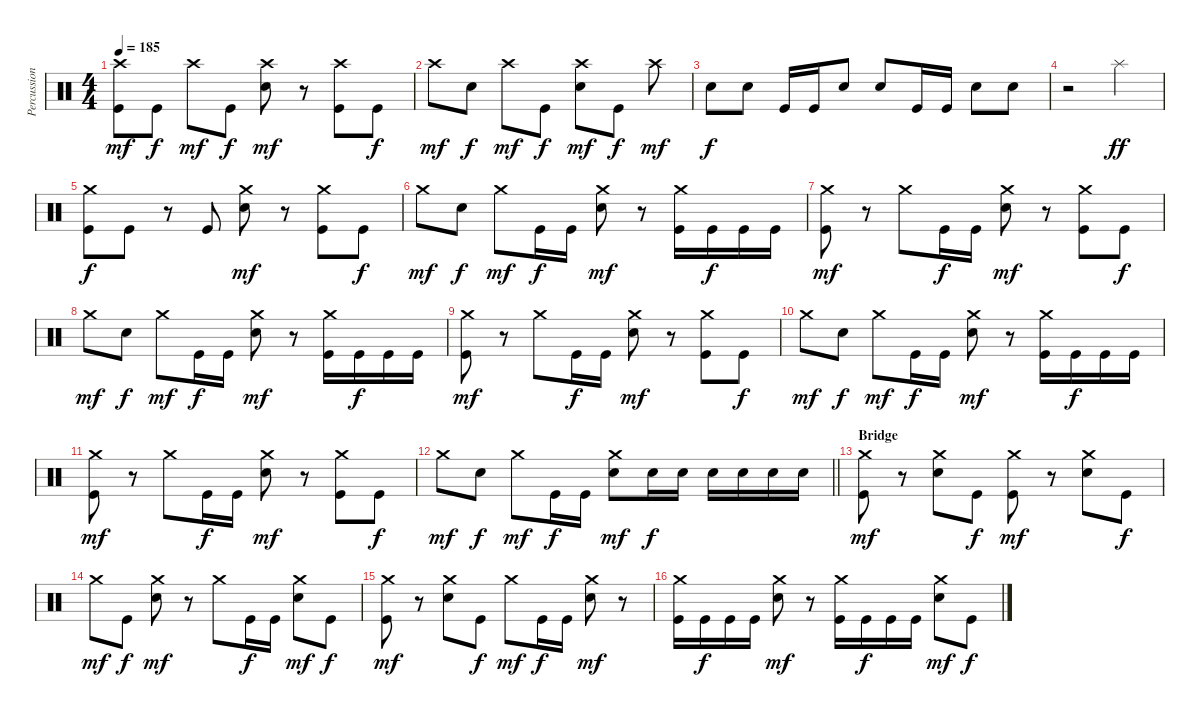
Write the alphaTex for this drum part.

\track ("Percussion" "Percussion") {instrument percussion}
\staff {score}
\articulation defaults
\ts (4 4)
\tempo 185
\clef neutral
\ks c
("Crash high (hit)" "Kick (hit)").8{dy mf} "Kick (hit)".8{dy f} "Crash high (hit)".8{dy mf} "Kick (hit)".8{dy f} ("Crash high (hit)" "Electric Snare (hit)").8{dy mf} r.8 ("Crash high (hit)" "Kick (hit)").8 "Kick (hit)".8{dy f} |
"Crash high (hit)".8{dy mf} "Electric Snare (hit)".8{dy f} "Crash high (hit)".8{dy mf} "Kick (hit)".8{dy f} ("Crash high (hit)" "Electric Snare (hit)").8{dy mf} "Kick (hit)".8{dy f} "Crash high (hit)".8{dy mf} |
"Electric Snare (hit)".8{dy f} "Electric Snare (hit)".8 "Kick (hit)".16 "Kick (hit)".16 "Electric Snare (hit)".8 "Electric Snare (hit)".8 "Kick (hit)".16 "Kick (hit)".16 "Electric Snare (hit)".8 "Electric Snare (hit)".8 |
r.2 "Splash (hit)".4{dy ff} |
("Crash medium (hit)" "Kick (hit)").8{dy f} "Kick (hit)".8 r.8 "Kick (hit)".8 ("Crash medium (hit)" "Electric Snare (hit)").8{dy mf} r.8 ("Crash medium (hit)" "Kick (hit)").8 "Kick (hit)".8{dy f} |
"Crash medium (hit)".8{dy mf} "Electric Snare (hit)".8{dy f} "Crash medium (hit)".8{dy mf} "Kick (hit)".16{dy f} "Kick (hit)".16 ("Crash medium (hit)" "Electric Snare (hit)").8{dy mf} r.8 ("Crash medium (hit)" "Kick (hit)").16 "Kick (hit)".16{dy f} "Kick (hit)".16 "Kick (hit)".16 |
("Crash medium (hit)" "Kick (hit)").8{dy mf} r.8 "Crash medium (hit)".8 "Kick (hit)".16{dy f} "Kick (hit)".16 ("Crash medium (hit)" "Electric Snare (hit)").8{dy mf} r.8 ("Crash medium (hit)" "Kick (hit)").8 "Kick (hit)".8{dy f} |
"Crash medium (hit)".8{dy mf} "Electric Snare (hit)".8{dy f} "Crash medium (hit)".8{dy mf} "Kick (hit)".16{dy f} "Kick (hit)".16 ("Crash medium (hit)" "Electric Snare (hit)").8{dy mf} r.8 ("Crash medium (hit)" "Kick (hit)").16 "Kick (hit)".16{dy f} "Kick (hit)".16 "Kick (hit)".16 |
("Crash medium (hit)" "Kick (hit)").8{dy mf} r.8 "Crash medium (hit)".8 "Kick (hit)".16{dy f} "Kick (hit)".16 ("Crash medium (hit)" "Electric Snare (hit)").8{dy mf} r.8 ("Crash medium (hit)" "Kick (hit)").8 "Kick (hit)".8{dy f} |
"Crash medium (hit)".8{dy mf} "Electric Snare (hit)".8{dy f} "Crash medium (hit)".8{dy mf} "Kick (hit)".16{dy f} "Kick (hit)".16 ("Crash medium (hit)" "Electric Snare (hit)").8{dy mf} r.8 ("Crash medium (hit)" "Kick (hit)").16 "Kick (hit)".16{dy f} "Kick (hit)".16 "Kick (hit)".16 |
("Crash medium (hit)" "Kick (hit)").8{dy mf} r.8 "Crash medium (hit)".8 "Kick (hit)".16{dy f} "Kick (hit)".16 ("Crash medium (hit)" "Electric Snare (hit)").8{dy mf} r.8 ("Crash medium (hit)" "Kick (hit)").8 "Kick (hit)".8{dy f} |
\barLineRight lightlight "Crash medium (hit)".8{dy mf} "Electric Snare (hit)".8{dy f} "Crash medium (hit)".8{dy mf} "Kick (hit)".16{dy f} "Kick (hit)".16
("Crash medium (hit)" "Electric Snare (hit)").8{dy mf} "Electric Snare (hit)".16{dy f} "Electric Snare (hit)".16 "Electric Snare (hit)".16 "Electric Snare (hit)".16 "Electric Snare (hit)".16 "Electric Snare (hit)".16 |
\section ("" "Bridge")
("Crash medium (hit)" "Kick (hit)").8{dy mf} r.8 ("Crash medium (hit)" "Electric Snare (hit)").8 "Kick (hit)".8{dy f} ("Crash medium (hit)" "Kick (hit)").8{dy mf} r.8 ("Crash medium (hit)" "Electric Snare (hit)").8 "Kick (hit)".8{dy f} |
"Crash medium (hit)".8{dy mf} "Kick (hit)".8{dy f} ("Crash medium (hit)" "Electric Snare (hit)").8{dy mf} r.8 "Crash medium (hit)".8 "Kick (hit)".16{dy f} "Kick (hit)".16 ("Crash medium (hit)" "Electric Snare (hit)").8{dy mf} "Kick (hit)".8{dy f} |
("Crash medium (hit)" "Kick (hit)").8{dy mf} r.8 ("Crash medium (hit)" "Electric Snare (hit)").8 "Kick (hit)".8{dy f} "Crash medium (hit)".8{dy mf} "Kick (hit)".16{dy f} "Kick (hit)".16 ("Crash medium (hit)" "Electric Snare (hit)").8{dy mf} r.8 |
("Crash medium (hit)" "Kick (hit)").16 "Kick (hit)".16{dy f} "Kick (hit)".16 "Kick (hit)".16 ("Crash medium (hit)" "Electric Snare (hit)").8{dy mf} r.8 ("Crash medium (hit)" "Kick (hit)").16 "Kick (hit)".16{dy f} "Kick (hit)".16 "Kick (hit)".16 ("Crash medium (hit)" "Electric Snare (hit)").8{dy mf} "Kick (hit)".8{dy f}
